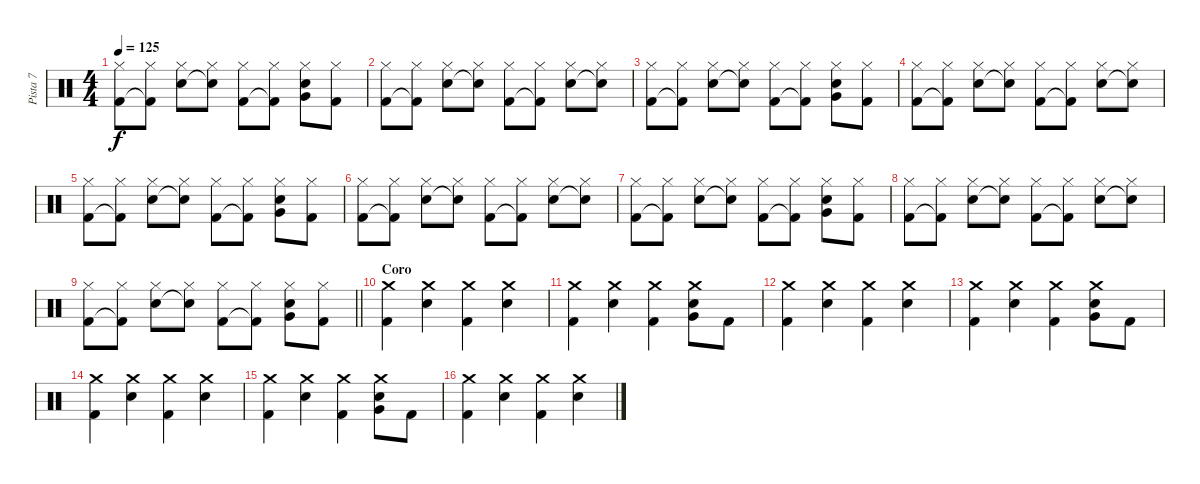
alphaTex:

\track ("Pista 7" "Pista 7") {instrument percussion}
\staff {score}
\articulation defaults
\ts (4 4)
\tempo 125
\clef neutral
\ks c
("Hi-Hat (closed)" "Kick (hit) 2").8{dy f} ("Hi-Hat (closed)" "Kick (hit) 2"{t}).8 ("Hi-Hat (closed)" "Electric Snare (hit)").8 ("Hi-Hat (closed)" "Electric Snare (hit)"{t}).8 ("Hi-Hat (closed)" "Kick (hit) 2").8 ("Hi-Hat (closed)" "Kick (hit) 2"{t}).8 ("Hi-Hat (closed)" "Very Low Tom (hit)" "Electric Snare (hit)").8 ("Hi-Hat (closed)" "Kick (hit) 2").8 |
("Hi-Hat (closed)" "Kick (hit) 2").8 ("Hi-Hat (closed)" "Kick (hit) 2"{t}).8 ("Hi-Hat (closed)" "Electric Snare (hit)").8 ("Hi-Hat (closed)" "Electric Snare (hit)"{t}).8 ("Hi-Hat (closed)" "Kick (hit) 2").8 ("Hi-Hat (closed)" "Kick (hit) 2"{t}).8 ("Hi-Hat (closed)" "Electric Snare (hit)").8 ("Hi-Hat (closed)" "Electric Snare (hit)"{t}).8 |
("Hi-Hat (closed)" "Kick (hit) 2").8 ("Hi-Hat (closed)" "Kick (hit) 2"{t}).8 ("Hi-Hat (closed)" "Electric Snare (hit)").8 ("Hi-Hat (closed)" "Electric Snare (hit)"{t}).8 ("Hi-Hat (closed)" "Kick (hit) 2").8 ("Hi-Hat (closed)" "Kick (hit) 2"{t}).8 ("Hi-Hat (closed)" "Very Low Tom (hit)" "Electric Snare (hit)").8 ("Hi-Hat (closed)" "Kick (hit) 2").8 |
("Hi-Hat (closed)" "Kick (hit) 2").8 ("Hi-Hat (closed)" "Kick (hit) 2"{t}).8 ("Hi-Hat (closed)" "Electric Snare (hit)").8 ("Hi-Hat (closed)" "Electric Snare (hit)"{t}).8 ("Hi-Hat (closed)" "Kick (hit) 2").8 ("Hi-Hat (closed)" "Kick (hit) 2"{t}).8 ("Hi-Hat (closed)" "Electric Snare (hit)").8 ("Hi-Hat (closed)" "Electric Snare (hit)"{t}).8 |
("Hi-Hat (closed)" "Kick (hit) 2").8 ("Hi-Hat (closed)" "Kick (hit) 2"{t}).8 ("Hi-Hat (closed)" "Electric Snare (hit)").8 ("Hi-Hat (closed)" "Electric Snare (hit)"{t}).8 ("Hi-Hat (closed)" "Kick (hit) 2").8 ("Hi-Hat (closed)" "Kick (hit) 2"{t}).8 ("Hi-Hat (closed)" "Very Low Tom (hit)" "Electric Snare (hit)").8 ("Hi-Hat (closed)" "Kick (hit) 2").8 |
("Hi-Hat (closed)" "Kick (hit) 2").8 ("Hi-Hat (closed)" "Kick (hit) 2"{t}).8 ("Hi-Hat (closed)" "Electric Snare (hit)").8 ("Hi-Hat (closed)" "Electric Snare (hit)"{t}).8 ("Hi-Hat (closed)" "Kick (hit) 2").8 ("Hi-Hat (closed)" "Kick (hit) 2"{t}).8 ("Hi-Hat (closed)" "Electric Snare (hit)").8 ("Hi-Hat (closed)" "Electric Snare (hit)"{t}).8 |
("Hi-Hat (closed)" "Kick (hit) 2").8 ("Hi-Hat (closed)" "Kick (hit) 2"{t}).8 ("Hi-Hat (closed)" "Electric Snare (hit)").8 ("Hi-Hat (closed)" "Electric Snare (hit)"{t}).8 ("Hi-Hat (closed)" "Kick (hit) 2").8 ("Hi-Hat (closed)" "Kick (hit) 2"{t}).8 ("Hi-Hat (closed)" "Very Low Tom (hit)" "Electric Snare (hit)").8 ("Hi-Hat (closed)" "Kick (hit) 2").8 |
("Hi-Hat (closed)" "Kick (hit) 2").8 ("Hi-Hat (closed)" "Kick (hit) 2"{t}).8 ("Hi-Hat (closed)" "Electric Snare (hit)").8 ("Hi-Hat (closed)" "Electric Snare (hit)"{t}).8 ("Hi-Hat (closed)" "Kick (hit) 2").8 ("Hi-Hat (closed)" "Kick (hit) 2"{t}).8 ("Hi-Hat (closed)" "Electric Snare (hit)").8 ("Hi-Hat (closed)" "Electric Snare (hit)"{t}).8 |
\barLineRight lightlight
("Hi-Hat (closed)" "Kick (hit) 2").8 ("Hi-Hat (closed)" "Kick (hit) 2"{t}).8 ("Hi-Hat (closed)" "Electric Snare (hit)").8 ("Hi-Hat (closed)" "Electric Snare (hit)"{t}).8 ("Hi-Hat (closed)" "Kick (hit) 2").8 ("Hi-Hat (closed)" "Kick (hit) 2"{t}).8 ("Hi-Hat (closed)" "Very Low Tom (hit)" "Electric Snare (hit)").8 ("Hi-Hat (closed)" "Kick (hit) 2").8 |
\section ("" "Coro")
("Crash medium (hit)" "Kick (hit) 2").4 ("Crash medium (hit)" "Electric Snare (hit)").4 ("Crash medium (hit)" "Kick (hit) 2").4 ("Crash medium (hit)" "Electric Snare (hit)").4 |
("Crash medium (hit)" "Kick (hit) 2").4 ("Crash medium (hit)" "Electric Snare (hit)").4 ("Crash medium (hit)" "Kick (hit) 2").4 ("Crash medium (hit)" "Very Low Tom (hit)" "Electric Snare (hit)").8 "Kick (hit) 2".8 |
("Crash medium (hit)" "Kick (hit) 2").4 ("Crash medium (hit)" "Electric Snare (hit)").4 ("Crash medium (hit)" "Kick (hit) 2").4 ("Crash medium (hit)" "Electric Snare (hit)").4 |
("Crash medium (hit)" "Kick (hit) 2").4 ("Crash medium (hit)" "Electric Snare (hit)").4 ("Crash medium (hit)" "Kick (hit) 2").4 ("Crash medium (hit)" "Very Low Tom (hit)" "Electric Snare (hit)").8 "Kick (hit) 2".8 |
("Crash medium (hit)" "Kick (hit) 2").4 ("Crash medium (hit)" "Electric Snare (hit)").4 ("Crash medium (hit)" "Kick (hit) 2").4 ("Crash medium (hit)" "Electric Snare (hit)").4 |
("Crash medium (hit)" "Kick (hit) 2").4 ("Crash medium (hit)" "Electric Snare (hit)").4 ("Crash medium (hit)" "Kick (hit) 2").4 ("Crash medium (hit)" "Very Low Tom (hit)" "Electric Snare (hit)").8 "Kick (hit) 2".8 |
("Crash medium (hit)" "Kick (hit) 2").4 ("Crash medium (hit)" "Electric Snare (hit)").4 ("Crash medium (hit)" "Kick (hit) 2").4 ("Crash medium (hit)" "Electric Snare (hit)").4
